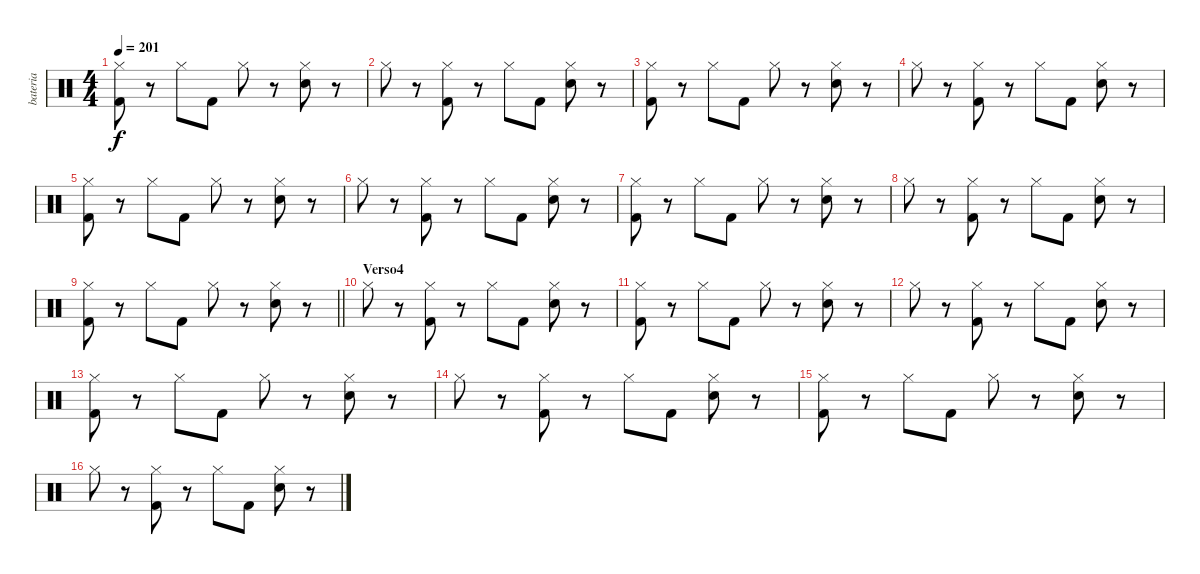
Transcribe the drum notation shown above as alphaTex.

\track ("bateria" "bateria") {solo instrument percussion}
\staff {score}
\articulation defaults
\ts (4 4)
\tempo 201
\clef neutral
\ks c
("Hi-Hat (closed)" "Kick (hit) 2").8{dy f} r.8 "Hi-Hat (closed)".8 "Kick (hit) 2".8 "Hi-Hat (closed)".8 r.8 ("Hi-Hat (closed)" "Electric Snare (hit)").8 r.8 |
"Hi-Hat (closed)".8 r.8 ("Hi-Hat (closed)" "Kick (hit) 2").8 r.8 "Hi-Hat (closed)".8 "Kick (hit) 2".8 ("Hi-Hat (closed)" "Electric Snare (hit)").8 r.8 |
("Hi-Hat (closed)" "Kick (hit) 2").8 r.8 "Hi-Hat (closed)".8 "Kick (hit) 2".8 "Hi-Hat (closed)".8 r.8 ("Hi-Hat (closed)" "Electric Snare (hit)").8 r.8 |
"Hi-Hat (closed)".8 r.8 ("Hi-Hat (closed)" "Kick (hit) 2").8 r.8 "Hi-Hat (closed)".8 "Kick (hit) 2".8 ("Hi-Hat (closed)" "Electric Snare (hit)").8 r.8 |
("Hi-Hat (closed)" "Kick (hit) 2").8 r.8 "Hi-Hat (closed)".8 "Kick (hit) 2".8 "Hi-Hat (closed)".8 r.8 ("Hi-Hat (closed)" "Electric Snare (hit)").8 r.8 |
"Hi-Hat (closed)".8 r.8 ("Hi-Hat (closed)" "Kick (hit) 2").8 r.8 "Hi-Hat (closed)".8 "Kick (hit) 2".8 ("Hi-Hat (closed)" "Electric Snare (hit)").8 r.8 |
("Hi-Hat (closed)" "Kick (hit) 2").8 r.8 "Hi-Hat (closed)".8 "Kick (hit) 2".8 "Hi-Hat (closed)".8 r.8 ("Hi-Hat (closed)" "Electric Snare (hit)").8 r.8 |
"Hi-Hat (closed)".8 r.8 ("Hi-Hat (closed)" "Kick (hit) 2").8 r.8 "Hi-Hat (closed)".8 "Kick (hit) 2".8 ("Hi-Hat (closed)" "Electric Snare (hit)").8 r.8 |
\barLineRight lightlight
("Hi-Hat (closed)" "Kick (hit) 2").8 r.8 "Hi-Hat (closed)".8 "Kick (hit) 2".8 "Hi-Hat (closed)".8 r.8 ("Hi-Hat (closed)" "Electric Snare (hit)").8 r.8 |
\section ("" "Verso4")
"Hi-Hat (closed)".8 r.8 ("Hi-Hat (closed)" "Kick (hit) 2").8 r.8 "Hi-Hat (closed)".8 "Kick (hit) 2".8 ("Hi-Hat (closed)" "Electric Snare (hit)").8 r.8 |
("Hi-Hat (closed)" "Kick (hit) 2").8 r.8 "Hi-Hat (closed)".8 "Kick (hit) 2".8 "Hi-Hat (closed)".8 r.8 ("Hi-Hat (closed)" "Electric Snare (hit)").8 r.8 |
"Hi-Hat (closed)".8 r.8 ("Hi-Hat (closed)" "Kick (hit) 2").8 r.8 "Hi-Hat (closed)".8 "Kick (hit) 2".8 ("Hi-Hat (closed)" "Electric Snare (hit)").8 r.8 |
("Hi-Hat (closed)" "Kick (hit) 2").8 r.8 "Hi-Hat (closed)".8 "Kick (hit) 2".8 "Hi-Hat (closed)".8 r.8 ("Hi-Hat (closed)" "Electric Snare (hit)").8 r.8 |
"Hi-Hat (closed)".8 r.8 ("Hi-Hat (closed)" "Kick (hit) 2").8 r.8 "Hi-Hat (closed)".8 "Kick (hit) 2".8 ("Hi-Hat (closed)" "Electric Snare (hit)").8 r.8 |
("Hi-Hat (closed)" "Kick (hit) 2").8 r.8 "Hi-Hat (closed)".8 "Kick (hit) 2".8 "Hi-Hat (closed)".8 r.8 ("Hi-Hat (closed)" "Electric Snare (hit)").8 r.8 |
"Hi-Hat (closed)".8 r.8 ("Hi-Hat (closed)" "Kick (hit) 2").8 r.8 "Hi-Hat (closed)".8 "Kick (hit) 2".8 ("Hi-Hat (closed)" "Electric Snare (hit)").8 r.8
